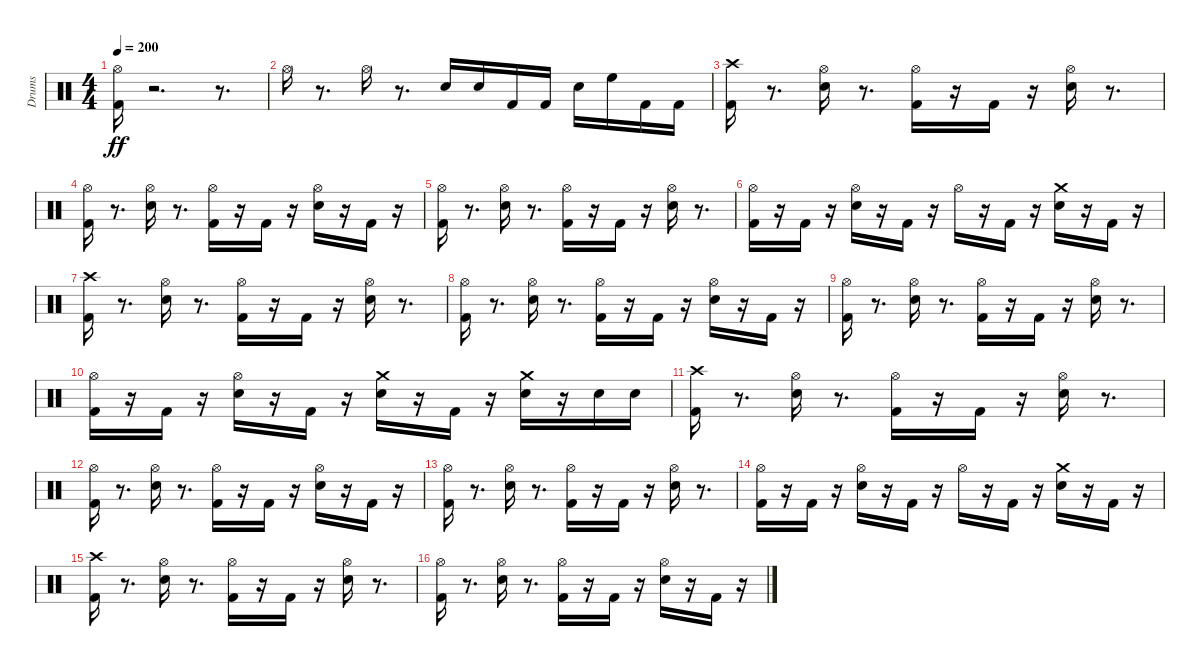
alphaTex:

\track ("Drums" "Drums") {instrument percussion}
\staff {score}
\articulation defaults
\ts (4 4)
\tempo 200
\clef neutral
\ks c
("Kick (hit) 2" "Hi-Hat (open)").16{dy ff} r.2{d} r.8{d} |
"Hi-Hat (open)".16 r.8{d} "Hi-Hat (open)".16 r.8{d} "Snare (hit) 2".16 "Snare (hit) 2".16 "Kick (hit) 2".16 "Kick (hit) 2".16 "Snare (hit) 2".16 "High Floor Tom (hit)".16 "Kick (hit) 2".16 "Kick (hit) 2".16 |
("Kick (hit) 2" "Crash high (hit)").16 r.8{d} ("Snare (hit) 2" "Hi-Hat (open)").16 r.8{d} ("Kick (hit) 2" "Hi-Hat (open)").16 r.16 "Kick (hit) 2".16 r.16 ("Snare (hit) 2" "Hi-Hat (open)").16 r.8{d} |
("Kick (hit) 2" "Hi-Hat (open)").16 r.8{d} ("Snare (hit) 2" "Hi-Hat (open)").16 r.8{d} ("Kick (hit) 2" "Hi-Hat (open)").16 r.16 "Kick (hit) 2".16 r.16 ("Snare (hit) 2" "Hi-Hat (open)").16 r.16 "Kick (hit) 2".16 r.16 |
("Kick (hit) 2" "Hi-Hat (open)").16 r.8{d} ("Snare (hit) 2" "Hi-Hat (open)").16 r.8{d} ("Kick (hit) 2" "Hi-Hat (open)").16 r.16 "Kick (hit) 2".16 r.16 ("Snare (hit) 2" "Hi-Hat (open)").16 r.8{d} |
("Kick (hit) 2" "Hi-Hat (open)").16 r.16 "Kick (hit) 2".16 r.16 ("Snare (hit) 2" "Hi-Hat (open)").16 r.16 "Kick (hit) 2".16 r.16 "Hi-Hat (open)".16 r.16 "Kick (hit) 2".16 r.16 ("Snare (hit) 2" "Crash medium (hit)").16 r.16 "Kick (hit) 2".16 r.16 |
("Kick (hit) 2" "Crash high (hit)").16 r.8{d} ("Snare (hit) 2" "Hi-Hat (open)").16 r.8{d} ("Kick (hit) 2" "Hi-Hat (open)").16 r.16 "Kick (hit) 2".16 r.16 ("Snare (hit) 2" "Hi-Hat (open)").16 r.8{d} |
("Kick (hit) 2" "Hi-Hat (open)").16 r.8{d} ("Snare (hit) 2" "Hi-Hat (open)").16 r.8{d} ("Kick (hit) 2" "Hi-Hat (open)").16 r.16 "Kick (hit) 2".16 r.16 ("Snare (hit) 2" "Hi-Hat (open)").16 r.16 "Kick (hit) 2".16 r.16 |
("Kick (hit) 2" "Hi-Hat (open)").16 r.8{d} ("Snare (hit) 2" "Hi-Hat (open)").16 r.8{d} ("Kick (hit) 2" "Hi-Hat (open)").16 r.16 "Kick (hit) 2".16 r.16 ("Snare (hit) 2" "Hi-Hat (open)").16 r.8{d} |
("Kick (hit) 2" "Hi-Hat (open)").16 r.16 "Kick (hit) 2".16 r.16 ("Snare (hit) 2" "Hi-Hat (open)").16 r.16 "Kick (hit) 2".16 r.16 ("Snare (hit) 2" "Crash medium (hit)").16 r.16 "Kick (hit) 2".16 r.16 ("Snare (hit) 2" "Crash medium (hit)").16 r.16 "Snare (hit) 2".16 "Snare (hit) 2".16 |
("Kick (hit) 2" "Crash high (hit)").16 r.8{d} ("Snare (hit) 2" "Hi-Hat (open)").16 r.8{d} ("Kick (hit) 2" "Hi-Hat (open)").16 r.16 "Kick (hit) 2".16 r.16 ("Snare (hit) 2" "Hi-Hat (open)").16 r.8{d} |
("Kick (hit) 2" "Hi-Hat (open)").16 r.8{d} ("Snare (hit) 2" "Hi-Hat (open)").16 r.8{d} ("Kick (hit) 2" "Hi-Hat (open)").16 r.16 "Kick (hit) 2".16 r.16 ("Snare (hit) 2" "Hi-Hat (open)").16 r.16 "Kick (hit) 2".16 r.16 |
("Kick (hit) 2" "Hi-Hat (open)").16 r.8{d} ("Snare (hit) 2" "Hi-Hat (open)").16 r.8{d} ("Kick (hit) 2" "Hi-Hat (open)").16 r.16 "Kick (hit) 2".16 r.16 ("Snare (hit) 2" "Hi-Hat (open)").16 r.8{d} |
("Kick (hit) 2" "Hi-Hat (open)").16 r.16 "Kick (hit) 2".16 r.16 ("Snare (hit) 2" "Hi-Hat (open)").16 r.16 "Kick (hit) 2".16 r.16 "Hi-Hat (open)".16 r.16 "Kick (hit) 2".16 r.16 ("Snare (hit) 2" "Crash medium (hit)").16 r.16 "Kick (hit) 2".16 r.16 |
("Kick (hit) 2" "Crash high (hit)").16 r.8{d} ("Snare (hit) 2" "Hi-Hat (open)").16 r.8{d} ("Kick (hit) 2" "Hi-Hat (open)").16 r.16 "Kick (hit) 2".16 r.16 ("Snare (hit) 2" "Hi-Hat (open)").16 r.8{d} |
("Kick (hit) 2" "Hi-Hat (open)").16 r.8{d} ("Snare (hit) 2" "Hi-Hat (open)").16 r.8{d} ("Kick (hit) 2" "Hi-Hat (open)").16 r.16 "Kick (hit) 2".16 r.16 ("Snare (hit) 2" "Hi-Hat (open)").16 r.16 "Kick (hit) 2".16 r.16
